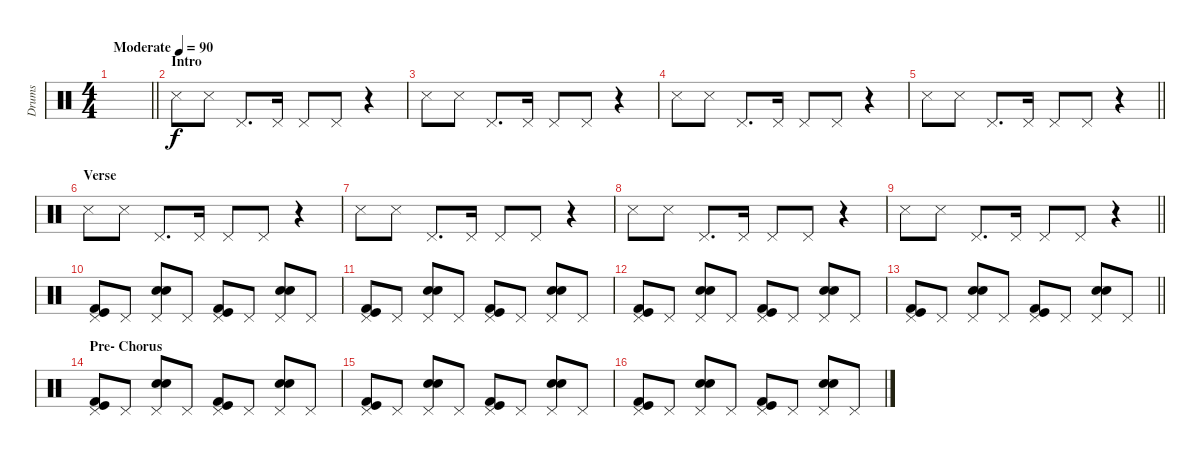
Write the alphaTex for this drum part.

\track ("Drums" "Drums") {instrument percussion}
\staff {score}
\articulation defaults
\ts (4 4)
\tempo (90 "Moderate")
\clef neutral
\barLineRight lightlight
\ks c
|
\section ("" "Intro")
"Snare (side stick) 3".8 "Snare (side stick) 3".8 "Pedal Hi-Hat (hit)".8{d} "Pedal Hi-Hat (hit)".16 "Pedal Hi-Hat (hit)".8 "Pedal Hi-Hat (hit)".8 r.4 |
"Snare (side stick) 3".8 "Snare (side stick) 3".8 "Pedal Hi-Hat (hit)".8{d} "Pedal Hi-Hat (hit)".16 "Pedal Hi-Hat (hit)".8 "Pedal Hi-Hat (hit)".8 r.4 |
"Snare (side stick) 3".8 "Snare (side stick) 3".8 "Pedal Hi-Hat (hit)".8{d} "Pedal Hi-Hat (hit)".16 "Pedal Hi-Hat (hit)".8 "Pedal Hi-Hat (hit)".8 r.4 |
\barLineRight lightlight "Snare (side stick) 3".8 "Snare (side stick) 3".8 "Pedal Hi-Hat (hit)".8{d} "Pedal Hi-Hat (hit)".16 "Pedal Hi-Hat (hit)".8 "Pedal Hi-Hat (hit)".8
r.4 |
\section ("" "Verse")
"Snare (side stick) 3".8 "Snare (side stick) 3".8 "Pedal Hi-Hat (hit)".8{d} "Pedal Hi-Hat (hit)".16 "Pedal Hi-Hat (hit)".8 "Pedal Hi-Hat (hit)".8 r.4 |
"Snare (side stick) 3".8 "Snare (side stick) 3".8 "Pedal Hi-Hat (hit)".8{d} "Pedal Hi-Hat (hit)".16 "Pedal Hi-Hat (hit)".8 "Pedal Hi-Hat (hit)".8 r.4 |
"Snare (side stick) 3".8 "Snare (side stick) 3".8 "Pedal Hi-Hat (hit)".8{d} "Pedal Hi-Hat (hit)".16 "Pedal Hi-Hat (hit)".8 "Pedal Hi-Hat (hit)".8 r.4 |
\barLineRight lightlight "Snare (side stick) 3".8 "Snare (side stick) 3".8 "Pedal Hi-Hat (hit)".8{d} "Pedal Hi-Hat (hit)".16 "Pedal Hi-Hat (hit)".8 "Pedal Hi-Hat (hit)".8
r.4 |
("Pedal Hi-Hat (hit)" "Kick (hit) 2" "Kick (hit)").8 "Pedal Hi-Hat (hit)".8 ("Pedal Hi-Hat (hit)" "Electric Snare (hit)" "Snare (hit) 2").8 "Pedal Hi-Hat (hit)".8 ("Pedal Hi-Hat (hit)" "Kick (hit) 2" "Kick (hit)").8 "Pedal Hi-Hat (hit)".8 ("Pedal Hi-Hat (hit)" "Electric Snare (hit)" "Snare (hit) 2").8 "Pedal Hi-Hat (hit)".8 |
("Pedal Hi-Hat (hit)" "Kick (hit) 2" "Kick (hit)").8 "Pedal Hi-Hat (hit)".8 ("Pedal Hi-Hat (hit)" "Electric Snare (hit)" "Snare (hit) 2").8 "Pedal Hi-Hat (hit)".8 ("Pedal Hi-Hat (hit)" "Kick (hit) 2" "Kick (hit)").8 "Pedal Hi-Hat (hit)".8 ("Pedal Hi-Hat (hit)" "Electric Snare (hit)" "Snare (hit) 2").8 "Pedal Hi-Hat (hit)".8 |
("Pedal Hi-Hat (hit)" "Kick (hit) 2" "Kick (hit)").8 "Pedal Hi-Hat (hit)".8 ("Pedal Hi-Hat (hit)" "Electric Snare (hit)" "Snare (hit) 2").8 "Pedal Hi-Hat (hit)".8 ("Pedal Hi-Hat (hit)" "Kick (hit) 2" "Kick (hit)").8 "Pedal Hi-Hat (hit)".8 ("Pedal Hi-Hat (hit)" "Electric Snare (hit)" "Snare (hit) 2").8 "Pedal Hi-Hat (hit)".8 |
\barLineRight lightlight
("Pedal Hi-Hat (hit)" "Kick (hit) 2" "Kick (hit)").8 "Pedal Hi-Hat (hit)".8 ("Pedal Hi-Hat (hit)" "Electric Snare (hit)" "Snare (hit) 2").8 "Pedal Hi-Hat (hit)".8 ("Pedal Hi-Hat (hit)" "Kick (hit) 2" "Kick (hit)").8 "Pedal Hi-Hat (hit)".8 ("Pedal Hi-Hat (hit)" "Electric Snare (hit)" "Snare (hit) 2").8 "Pedal Hi-Hat (hit)".8 |
\section ("" "Pre- Chorus")
("Pedal Hi-Hat (hit)" "Kick (hit) 2" "Kick (hit)").8 "Pedal Hi-Hat (hit)".8 ("Pedal Hi-Hat (hit)" "Electric Snare (hit)" "Snare (hit) 2").8 "Pedal Hi-Hat (hit)".8 ("Pedal Hi-Hat (hit)" "Kick (hit) 2" "Kick (hit)").8 "Pedal Hi-Hat (hit)".8 ("Pedal Hi-Hat (hit)" "Electric Snare (hit)" "Snare (hit) 2").8 "Pedal Hi-Hat (hit)".8 |
("Pedal Hi-Hat (hit)" "Kick (hit) 2" "Kick (hit)").8 "Pedal Hi-Hat (hit)".8 ("Pedal Hi-Hat (hit)" "Electric Snare (hit)" "Snare (hit) 2").8 "Pedal Hi-Hat (hit)".8 ("Pedal Hi-Hat (hit)" "Kick (hit) 2" "Kick (hit)").8 "Pedal Hi-Hat (hit)".8 ("Pedal Hi-Hat (hit)" "Electric Snare (hit)" "Snare (hit) 2").8 "Pedal Hi-Hat (hit)".8 |
("Pedal Hi-Hat (hit)" "Kick (hit) 2" "Kick (hit)").8 "Pedal Hi-Hat (hit)".8 ("Pedal Hi-Hat (hit)" "Electric Snare (hit)" "Snare (hit) 2").8 "Pedal Hi-Hat (hit)".8 ("Pedal Hi-Hat (hit)" "Kick (hit) 2" "Kick (hit)").8 "Pedal Hi-Hat (hit)".8 ("Pedal Hi-Hat (hit)" "Electric Snare (hit)" "Snare (hit) 2").8 "Pedal Hi-Hat (hit)".8
